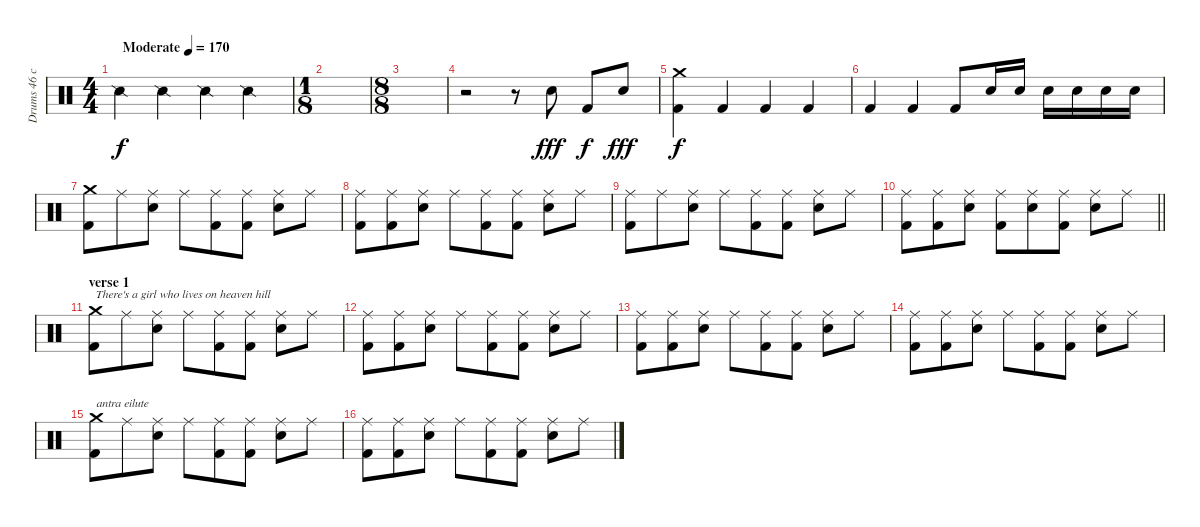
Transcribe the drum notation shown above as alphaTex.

\track ("Drums 46 chorus" "Drums 46 c") {mute instrument percussion}
\staff {score}
\articulation defaults
\ts (4 4)
\tempo (170 "Moderate")
\clef neutral
\ks c "Snare (side stick) 2".4{dy f} "Snare (side stick) 2".4 "Snare (side stick) 2".4 "Snare (side stick) 2".4
|
\ts (1 8)
|
\ts (8 8)
|
r.2 r.8 "Snare (hit) 2".8{dy fff} "Kick (hit) 2".8{dy f} "Snare (hit) 2".8{dy fff} |
("Crash medium (hit)" "Kick (hit) 2").4{dy f} "Kick (hit) 2".4 "Kick (hit) 2".4 "Kick (hit) 2".4 |
"Kick (hit) 2".4 "Kick (hit) 2".4 "Kick (hit) 2".8 "Snare (hit) 2".16 "Snare (hit) 2".16 "Snare (hit) 2".16 "Snare (hit) 2".16 "Snare (hit) 2".16 "Snare (hit) 2".16 |
("Crash medium (hit)" "Kick (hit) 2").8 "Ride (middle)".8 ("Ride (middle)" "Snare (hit) 2").8 "Ride (middle)".8 ("Ride (middle)" "Kick (hit) 2").8 ("Ride (middle)" "Kick (hit) 2").8 ("Ride (middle)" "Snare (hit) 2").8 "Ride (middle)".8 |
("Ride (middle)" "Kick (hit) 2").8 ("Ride (middle)" "Kick (hit) 2").8 ("Ride (middle)" "Snare (hit) 2").8 "Ride (middle)".8 ("Ride (middle)" "Kick (hit) 2").8 ("Ride (middle)" "Kick (hit) 2").8 ("Ride (middle)" "Snare (hit) 2").8 "Ride (middle)".8 |
("Ride (middle)" "Kick (hit) 2").8 "Ride (middle)".8 ("Ride (middle)" "Snare (hit) 2").8 "Ride (middle)".8 ("Ride (middle)" "Kick (hit) 2").8 ("Ride (middle)" "Kick (hit) 2").8 ("Ride (middle)" "Snare (hit) 2").8 "Ride (middle)".8 |
\barLineRight lightlight
("Ride (middle)" "Kick (hit) 2").8 ("Ride (middle)" "Kick (hit) 2").8 ("Ride (middle)" "Snare (hit) 2").8 ("Ride (middle)" "Kick (hit) 2").8 ("Ride (middle)" "Snare (hit) 2").8 ("Ride (middle)" "Kick (hit) 2").8 ("Ride (middle)" "Snare (hit) 2").8 "Ride (middle)".8 |
\section ("" "verse 1")
("Crash medium (hit)" "Kick (hit) 2").8{txt "There's a girl who lives on heaven hill"} "Ride (middle)".8 ("Ride (middle)" "Snare (hit) 2").8 "Ride (middle)".8 ("Ride (middle)" "Kick (hit) 2").8 ("Ride (middle)" "Kick (hit) 2").8 ("Ride (middle)" "Snare (hit) 2").8 "Ride (middle)".8 |
("Ride (middle)" "Kick (hit) 2").8 ("Ride (middle)" "Kick (hit) 2").8 ("Ride (middle)" "Snare (hit) 2").8 "Ride (middle)".8 ("Ride (middle)" "Kick (hit) 2").8 ("Ride (middle)" "Kick (hit) 2").8 ("Ride (middle)" "Snare (hit) 2").8 "Ride (middle)".8 |
("Ride (middle)" "Kick (hit) 2").8 ("Ride (middle)" "Kick (hit) 2").8 ("Ride (middle)" "Snare (hit) 2").8 "Ride (middle)".8 ("Ride (middle)" "Kick (hit) 2").8 ("Ride (middle)" "Kick (hit) 2").8 ("Ride (middle)" "Snare (hit) 2").8 "Ride (middle)".8 |
("Ride (middle)" "Kick (hit) 2").8 ("Ride (middle)" "Kick (hit) 2").8 ("Ride (middle)" "Snare (hit) 2").8 "Ride (middle)".8 ("Ride (middle)" "Kick (hit) 2").8 ("Ride (middle)" "Kick (hit) 2").8 ("Ride (middle)" "Snare (hit) 2").8 "Ride (middle)".8 |
("Crash medium (hit)" "Kick (hit) 2").8{txt "antra eilute"} "Ride (middle)".8 ("Ride (middle)" "Snare (hit) 2").8 "Ride (middle)".8 ("Ride (middle)" "Kick (hit) 2").8 ("Ride (middle)" "Kick (hit) 2").8 ("Ride (middle)" "Snare (hit) 2").8 "Ride (middle)".8 |
("Ride (middle)" "Kick (hit) 2").8 ("Ride (middle)" "Kick (hit) 2").8 ("Ride (middle)" "Snare (hit) 2").8 "Ride (middle)".8 ("Ride (middle)" "Kick (hit) 2").8 ("Ride (middle)" "Kick (hit) 2").8 ("Ride (middle)" "Snare (hit) 2").8 "Ride (middle)".8
